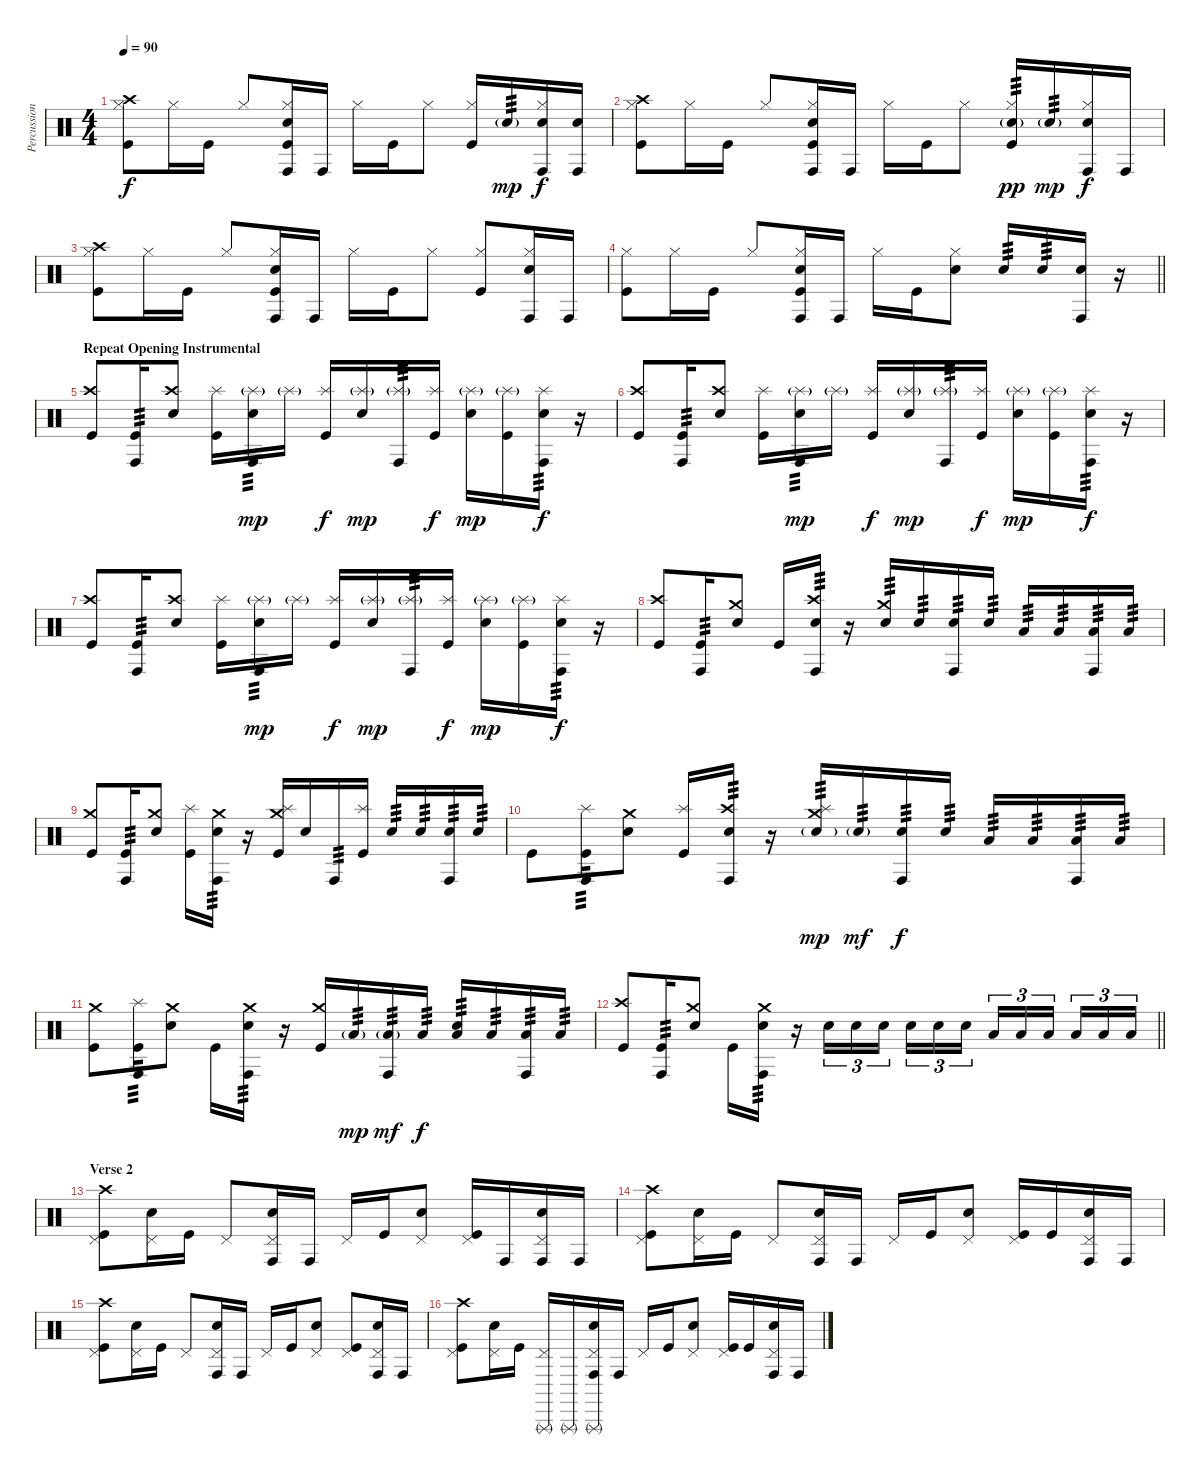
\track ("Percussion" "Percussion") {instrument percussion}
\staff {score}
\articulation defaults
\ts (4 4)
\tempo 90
\clef neutral
\ks c
("Crash high (hit)" "Hi-Hat (closed)" "Kick (hit)").8{dy f} "Hi-Hat (closed)".16 "Kick (hit)".16 "Hi-Hat (closed)".8 ("Hi-Hat (closed)" "Snare (hit) 2" "Conga high (hit)" "Kick (hit)").16 "Conga high (hit)".16 "Hi-Hat (closed)".16 "Kick (hit)".16 "Hi-Hat (closed)".8 ("Hi-Hat (closed)" "Kick (hit)").16 "Snare (hit) 2"{g}.16{tp 3 dy mp} ("Hi-Hat (closed)" "Snare (hit) 2" "Conga high (hit)").16{dy f} ("Snare (hit) 2" "Conga high (hit)").16 |
("Crash high (hit)" "Hi-Hat (closed)" "Kick (hit)").8 "Hi-Hat (closed)".16 "Kick (hit)".16 "Hi-Hat (closed)".8 ("Hi-Hat (closed)" "Snare (hit) 2" "Conga high (hit)" "Kick (hit)").16 "Conga high (hit)".16 "Hi-Hat (closed)".16 "Kick (hit)".16 "Hi-Hat (closed)".8 ("Hi-Hat (closed)" "Snare (hit) 2"{g} "Kick (hit)").16{tp 3 dy pp} "Snare (hit) 2"{g}.16{tp 3 dy mp} ("Hi-Hat (closed)" "Snare (hit) 2" "Conga high (hit)").16{dy f} "Conga high (hit)".16 |
("Crash high (hit)" "Hi-Hat (closed)" "Kick (hit)").8 "Hi-Hat (closed)".16 "Kick (hit)".16 "Hi-Hat (closed)".8 ("Hi-Hat (closed)" "Snare (hit) 2" "Conga high (hit)" "Kick (hit)").16 "Conga high (hit)".16 "Hi-Hat (closed)".16 "Kick (hit)".16 "Hi-Hat (closed)".8 ("Hi-Hat (closed)" "Kick (hit)").8 ("Hi-Hat (closed)" "Snare (hit) 2" "Conga high (hit)").16 "Conga high (hit)".16 |
\barLineRight lightlight
("Hi-Hat (closed)" "Kick (hit)").8 "Hi-Hat (closed)".16 "Kick (hit)".16 "Hi-Hat (closed)".8 ("Hi-Hat (closed)" "Snare (hit) 2" "Conga high (hit)" "Kick (hit)").16 "Conga high (hit)".16 "Hi-Hat (closed)".16 "Kick (hit)".16 ("Hi-Hat (closed)" "Snare (hit) 2").8 "Snare (hit) 2".16{tp 3} "Snare (hit) 2".16{tp 3} ("Snare (hit) 2" "Conga high (hit)").16 r.16 |
\section ("" "Repeat Opening Instrumental")
("Crash high (hit)" "Kick (hit)").8 ("Conga high (hit)" "Kick (hit)").16{tp 3} ("Crash high (hit)" "Snare (hit) 2").8 ("Splash (hit)" "Kick (hit)").16 ("Splash (hit)"{g} "Snare (hit) 2" "Conga high (hit)").16{tp 3 dy mp} "Splash (hit)"{g}.16 ("Splash (hit)" "Kick (hit)").16{dy f} ("Splash (hit)"{g} "Snare (hit) 2").16{dy mp} ("Splash (hit)"{g} "Conga high (hit)").16{tp 3} ("Splash (hit)" "Kick (hit)").16{dy f} ("Splash (hit)"{g} "Snare (hit) 2").16{dy mp} ("Splash (hit)"{g} "Kick (hit)").16 ("Splash (hit)" "Snare (hit) 2" "Conga high (hit)").16{tp 3 dy f} r.16 |
("Crash high (hit)" "Kick (hit)").8 ("Conga high (hit)" "Kick (hit)").16{tp 3} ("Crash high (hit)" "Snare (hit) 2").8 ("Splash (hit)" "Kick (hit)").16 ("Splash (hit)"{g} "Snare (hit) 2" "Conga high (hit)").16{tp 3 dy mp} "Splash (hit)"{g}.16 ("Splash (hit)" "Kick (hit)").16{dy f} ("Splash (hit)"{g} "Snare (hit) 2").16{dy mp} ("Splash (hit)"{g} "Conga high (hit)").16{tp 3} ("Splash (hit)" "Kick (hit)").16{dy f} ("Splash (hit)"{g} "Snare (hit) 2").16{dy mp} ("Splash (hit)"{g} "Kick (hit)").16 ("Splash (hit)" "Snare (hit) 2" "Conga high (hit)").16{tp 3 dy f} r.16 |
("Crash high (hit)" "Kick (hit)").8 ("Conga high (hit)" "Kick (hit)").16{tp 3} ("Crash high (hit)" "Snare (hit) 2").8 ("Splash (hit)" "Kick (hit)").16 ("Splash (hit)"{g} "Snare (hit) 2" "Conga high (hit)").16{tp 3 dy mp} "Splash (hit)"{g}.16 ("Splash (hit)" "Kick (hit)").16{dy f} ("Splash (hit)"{g} "Snare (hit) 2").16{dy mp} ("Splash (hit)"{g} "Conga high (hit)").16{tp 3} ("Splash (hit)" "Kick (hit)").16{dy f} ("Splash (hit)"{g} "Snare (hit) 2").16{dy mp} ("Splash (hit)"{g} "Kick (hit)").16 ("Splash (hit)" "Snare (hit) 2" "Conga high (hit)").16{tp 3 dy f} r.16 |
("Crash high (hit)" "Kick (hit)").8 ("Conga high (hit)" "Kick (hit)").16{tp 3} ("Crash medium (hit)" "Snare (hit) 2").8 "Kick (hit)".16 ("Crash high (hit)" "Snare (hit) 2" "Conga high (hit)").16{tp 3} r.16 ("Crash medium (hit)" "Snare (hit) 2").16{tp 3} "Snare (hit) 2".16{tp 3} ("Snare (hit) 2" "Conga high (hit)").16{tp 3} "Snare (hit) 2".16{tp 3} "Low Floor Tom (hit)".16{tp 3} "Low Floor Tom (hit)".16{tp 3} ("Conga high (hit)" "Low Floor Tom (hit)").16{tp 3} "Low Floor Tom (hit)".16{tp 3} |
("Crash medium (hit)" "Kick (hit)").8 ("Conga high (hit)" "Kick (hit)").16{tp 3} ("Crash medium (hit)" "Snare (hit) 2").8 ("Splash (hit)" "Kick (hit)").16 ("Crash medium (hit)" "Snare (hit) 2" "Conga high (hit)").16{tp 3} r.16 ("Crash medium (hit)" "Splash (hit)" "Kick (hit)").16 "Snare (hit) 2".16 "Conga high (hit)".16{tp 3} ("Splash (hit)" "Kick (hit)").16 "Snare (hit) 2".16{tp 3} "Snare (hit) 2".16{tp 3} ("Snare (hit) 2" "Conga high (hit)").16{tp 3} "Snare (hit) 2".16{tp 3} |
"Kick (hit)".8 ("Splash (hit)" "Conga high (hit)" "Kick (hit)").16{tp 3} ("Crash medium (hit)" "Snare (hit) 2").8 ("Splash (hit)" "Kick (hit)").16 ("Crash high (hit)" "Snare (hit) 2" "Conga high (hit)").16{tp 3} r.16 ("Crash medium (hit)" "Splash (hit)" "Snare (hit) 2"{g}).16{tp 3 dy mp} "Snare (hit) 2"{g}.16{tp 3 dy mf} ("Snare (hit) 2" "Conga high (hit)").16{tp 3 dy f} "Snare (hit) 2".16{tp 3} "Low Floor Tom (hit)".16{tp 3} "Low Floor Tom (hit)".16{tp 3} ("Conga high (hit)" "Low Floor Tom (hit)").16{tp 3} "Low Floor Tom (hit)".16{tp 3} |
("Crash medium (hit)" "Kick (hit)").8 ("Splash (hit)" "Conga high (hit)" "Kick (hit)").16{tp 3} ("Crash medium (hit)" "Snare (hit) 2").8 "Kick (hit)".16 ("Crash medium (hit)" "Snare (hit) 2" "Conga high (hit)").16{tp 3} r.16 ("Crash medium (hit)" "Kick (hit)").16 "Low Floor Tom (hit)"{g}.16{tp 3 dy mp} ("Conga high (hit)" "Low Floor Tom (hit)"{g}).16{tp 3 dy mf} "Low Floor Tom (hit)".16{tp 3 dy f} ("Snare (hit) 2" "Low Floor Tom (hit)").16{tp 3} "Low Floor Tom (hit)".16{tp 3} ("Conga high (hit)" "Low Floor Tom (hit)").16{tp 3} "Low Floor Tom (hit)".16{tp 3} |
\barLineRight lightlight
("Crash high (hit)" "Kick (hit)").8 ("Conga high (hit)" "Kick (hit)").16{tp 3} ("Crash medium (hit)" "Snare (hit) 2").8 "Kick (hit)".16 ("Crash medium (hit)" "Snare (hit) 2" "Conga high (hit)").16{tp 3} r.16 "Snare (hit) 2".16{tu (3 2)} "Snare (hit) 2".16{tu (3 2)} "Snare (hit) 2".16{tu (3 2) beam splitsecondary} "Snare (hit) 2".16{tu (3 2)} "Snare (hit) 2".16{tu (3 2)} "Snare (hit) 2".16{tu (3 2)} "Low Floor Tom (hit)".16{tu (3 2)} "Low Floor Tom (hit)".16{tu (3 2)} "Low Floor Tom (hit)".16{tu (3 2) beam splitsecondary} "Low Floor Tom (hit)".16{tu (3 2)} "Low Floor Tom (hit)".16{tu (3 2)} "Low Floor Tom (hit)".16{tu (3 2)} |
\section ("" "Verse 2")
("Crash high (hit)" "Pedal Hi-Hat (hit)" "Kick (hit)").8 ("Pedal Hi-Hat (hit)" "Snare (hit) 2").16 "Kick (hit)".16 "Pedal Hi-Hat (hit)".8 ("Pedal Hi-Hat (hit)" "Snare (hit) 2" "Conga high (hit)").16 "Conga high (hit)".16 "Pedal Hi-Hat (hit)".16 "Kick (hit)".16 ("Pedal Hi-Hat (hit)" "Snare (hit) 2").8 ("Pedal Hi-Hat (hit)" "Kick (hit)").16 "Conga high (hit)".16 ("Pedal Hi-Hat (hit)" "Snare (hit) 2" "Conga high (hit)").16 "Conga high (hit)".16 |
("Crash high (hit)" "Pedal Hi-Hat (hit)" "Kick (hit)").8 ("Pedal Hi-Hat (hit)" "Snare (hit) 2").16 "Kick (hit)".16 "Pedal Hi-Hat (hit)".8 ("Pedal Hi-Hat (hit)" "Snare (hit) 2" "Conga high (hit)").16 "Conga high (hit)".16 "Pedal Hi-Hat (hit)".16 "Kick (hit)".16 ("Pedal Hi-Hat (hit)" "Snare (hit) 2").8 ("Pedal Hi-Hat (hit)" "Kick (hit)").16 "Kick (hit)".16 ("Pedal Hi-Hat (hit)" "Snare (hit) 2" "Conga high (hit)").16 "Conga high (hit)".16 |
("Crash high (hit)" "Pedal Hi-Hat (hit)" "Kick (hit)").8 ("Pedal Hi-Hat (hit)" "Snare (hit) 2").16 "Kick (hit)".16 "Pedal Hi-Hat (hit)".8 ("Pedal Hi-Hat (hit)" "Snare (hit) 2" "Conga high (hit)").16 "Conga high (hit)".16 "Pedal Hi-Hat (hit)".16 "Kick (hit)".16 ("Pedal Hi-Hat (hit)" "Snare (hit) 2").8 ("Pedal Hi-Hat (hit)" "Kick (hit)").8 ("Pedal Hi-Hat (hit)" "Snare (hit) 2" "Conga high (hit)").16 "Conga high (hit)".16 |
("Crash high (hit)" "Pedal Hi-Hat (hit)" "Kick (hit)").8 ("Pedal Hi-Hat (hit)" "Snare (hit) 2").16 "Kick (hit)".16 ("Pedal Hi-Hat (hit)" "Triangle (rnute)").16 "Triangle (rnute)".16 ("Pedal Hi-Hat (hit)" "Triangle (rnute)" "Snare (hit) 2" "Conga high (hit)").16 "Conga high (hit)".16 "Pedal Hi-Hat (hit)".16 "Kick (hit)".16 ("Pedal Hi-Hat (hit)" "Snare (hit) 2").8 ("Pedal Hi-Hat (hit)" "Kick (hit)").16 "Kick (hit)".16 ("Pedal Hi-Hat (hit)" "Snare (hit) 2" "Conga high (hit)").16 "Conga high (hit)".16
